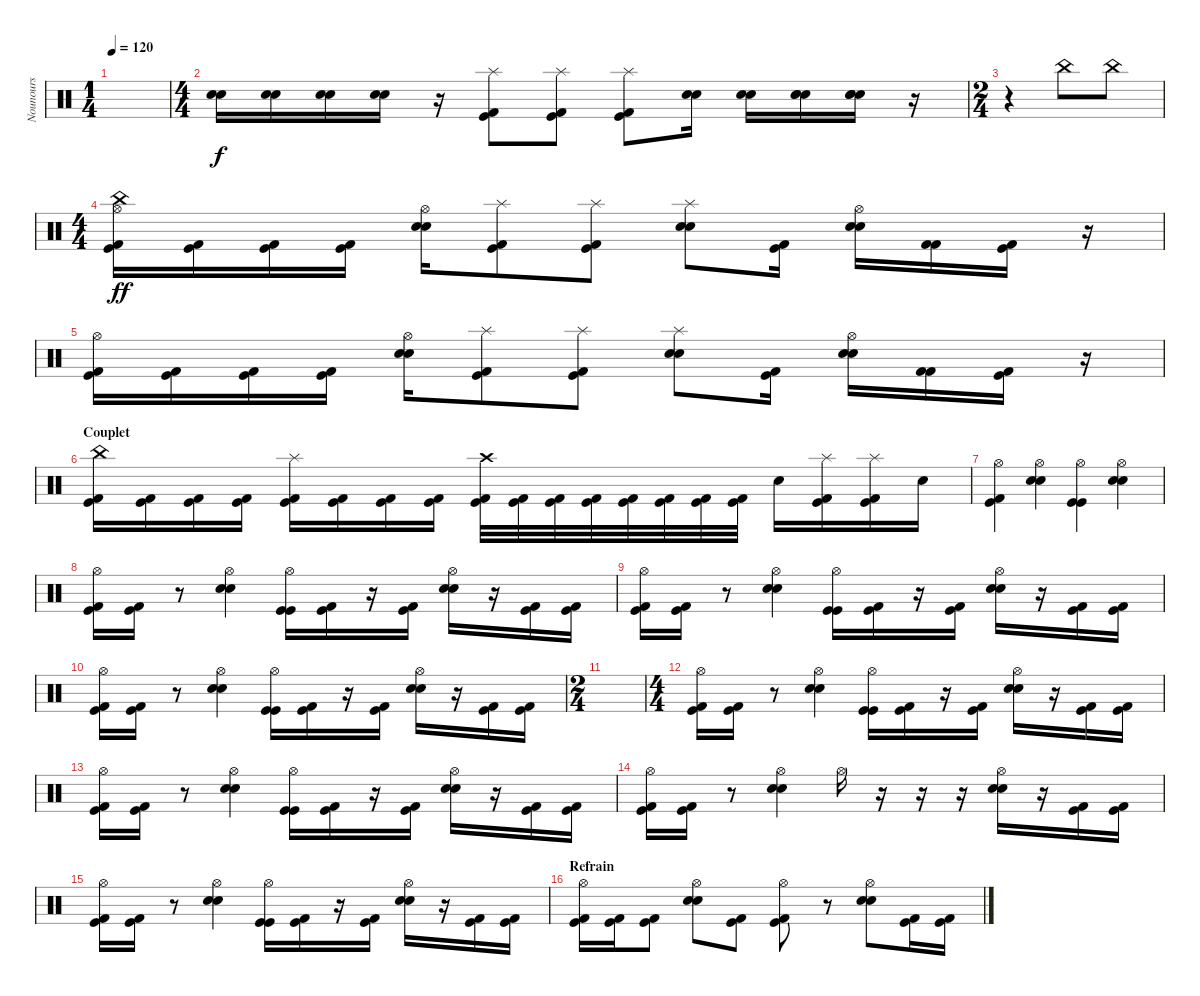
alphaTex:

\track ("Nounours" "Nounours") {instrument percussion}
\staff {score}
\articulation defaults
\ts (1 4)
\tempo 120
\clef neutral
\ks c
|
\ts (4 4)
("Electric Snare (hit)" "Electric Snare (hit)").16 ("Electric Snare (hit)" "Electric Snare (hit)").16 ("Electric Snare (hit)" "Electric Snare (hit)").16 ("Electric Snare (hit)" "Electric Snare (hit)").16 r.16 ("Splash (hit)" "Kick (hit) 2" "Kick (hit)").8 ("Splash (hit)" "Kick (hit) 2" "Kick (hit)").8 ("Splash (hit)" "Kick (hit) 2" "Kick (hit)").8 ("Electric Snare (hit)" "Electric Snare (hit)").16 ("Electric Snare (hit)" "Electric Snare (hit)").16 ("Electric Snare (hit)" "Electric Snare (hit)" "Electric Snare (hit)").16 ("Electric Snare (hit)" "Electric Snare (hit)" "Electric Snare (hit)").16 r.16 |
\ts (2 4)
r.4 "China (hit)".8{dy f} "China (hit)".8 |
\ts (4 4)
("Hi-Hat (open)" "China (hit)" "Kick (hit)" "Kick (hit) 2").16{dy ff} ("Kick (hit) 2" "Kick (hit)").16 ("Kick (hit)" "Kick (hit) 2").16 ("Kick (hit) 2" "Kick (hit)").16 ("Hi-Hat (open)" "Electric Snare (hit)" "Electric Snare (hit)").16 ("Splash (hit)" "Kick (hit) 2" "Kick (hit)").8 ("Splash (hit)" "Kick (hit) 2" "Kick (hit)").8 ("Splash (hit)" "Electric Snare (hit)" "Electric Snare (hit)").8 ("Kick (hit) 2" "Kick (hit)").16 ("Hi-Hat (open)" "Electric Snare (hit)" "Electric Snare (hit)").16 ("Kick (hit) 2" "Kick (hit) 2").16 ("Kick (hit)" "Kick (hit) 2").16 r.16 |
("Hi-Hat (open)" "Kick (hit)" "Kick (hit) 2").16 ("Kick (hit) 2" "Kick (hit)").16 ("Kick (hit)" "Kick (hit) 2").16 ("Kick (hit) 2" "Kick (hit)").16 ("Hi-Hat (open)" "Electric Snare (hit)" "Electric Snare (hit)").16 ("Splash (hit)" "Kick (hit) 2" "Kick (hit)").8 ("Splash (hit)" "Kick (hit) 2" "Kick (hit)").8 ("Splash (hit)" "Electric Snare (hit)" "Electric Snare (hit)").8 ("Kick (hit) 2" "Kick (hit)").16 ("Hi-Hat (open)" "Electric Snare (hit)" "Electric Snare (hit)").16 ("Kick (hit) 2" "Kick (hit) 2").16 ("Kick (hit)" "Kick (hit) 2").16 r.16 |
\section ("" "Couplet")
("China (hit)" "Kick (hit) 2" "Kick (hit)").16 ("Kick (hit) 2" "Kick (hit)").16 ("Kick (hit)" "Kick (hit) 2").16 ("Kick (hit)" "Kick (hit) 2").16 ("Splash (hit)" "Kick (hit) 2" "Kick (hit)").16 ("Kick (hit)" "Kick (hit) 2").16 ("Kick (hit) 2" "Kick (hit)").16 ("Kick (hit)" "Kick (hit) 2").16 ("Crash high (hit)" "Kick (hit) 2" "Kick (hit)").32 ("Kick (hit)" "Kick (hit) 2").32 ("Kick (hit) 2" "Kick (hit)").32 ("Kick (hit)" "Kick (hit) 2").32 ("Kick (hit) 2" "Kick (hit)").32 ("Kick (hit)" "Kick (hit) 2").32 ("Kick (hit)" "Kick (hit) 2").32 ("Kick (hit) 2" "Kick (hit)").32 "Electric Snare (hit)".16 ("Splash (hit)" "Kick (hit) 2" "Kick (hit)").16 ("Splash (hit)" "Kick (hit) 2" "Kick (hit)").16 "Electric Snare (hit)".16 |
("Hi-Hat (open)" "Kick (hit)" "Kick (hit) 2").4 ("Hi-Hat (open)" "Electric Snare (hit)" "Electric Snare (hit)").4 ("Hi-Hat (open)" "Kick (hit)" "Kick (hit)").4 ("Hi-Hat (open)" "Electric Snare (hit)" "Electric Snare (hit)").4 |
("Hi-Hat (open)" "Kick (hit)" "Kick (hit) 2").16 ("Kick (hit)" "Kick (hit) 2").16 r.8 ("Hi-Hat (open)" "Electric Snare (hit)" "Electric Snare (hit)").4 ("Hi-Hat (open)" "Kick (hit)" "Kick (hit)").16 ("Kick (hit)" "Kick (hit) 2").16 r.16 ("Kick (hit)" "Kick (hit) 2").16 ("Hi-Hat (open)" "Electric Snare (hit)" "Electric Snare (hit)").16 r.16 ("Kick (hit)" "Kick (hit) 2").16 ("Kick (hit) 2" "Kick (hit)").16 |
("Hi-Hat (open)" "Kick (hit)" "Kick (hit) 2").16 ("Kick (hit)" "Kick (hit) 2").16 r.8 ("Hi-Hat (open)" "Electric Snare (hit)" "Electric Snare (hit)").4 ("Hi-Hat (open)" "Kick (hit)" "Kick (hit)").16 ("Kick (hit)" "Kick (hit) 2").16 r.16 ("Kick (hit)" "Kick (hit) 2").16 ("Hi-Hat (open)" "Electric Snare (hit)" "Electric Snare (hit)").16 r.16 ("Kick (hit)" "Kick (hit) 2").16 ("Kick (hit) 2" "Kick (hit)").16 |
("Hi-Hat (open)" "Kick (hit)" "Kick (hit) 2").16 ("Kick (hit)" "Kick (hit) 2").16 r.8 ("Hi-Hat (open)" "Electric Snare (hit)" "Electric Snare (hit)").4 ("Hi-Hat (open)" "Kick (hit)" "Kick (hit)").16 ("Kick (hit)" "Kick (hit) 2").16 r.16 ("Kick (hit)" "Kick (hit) 2").16 ("Hi-Hat (open)" "Electric Snare (hit)" "Electric Snare (hit)").16 r.16 ("Kick (hit)" "Kick (hit) 2").16 ("Kick (hit) 2" "Kick (hit)").16 |
\ts (2 4)
|
\ts (4 4)
("Hi-Hat (open)" "Kick (hit)" "Kick (hit) 2").16 ("Kick (hit)" "Kick (hit) 2").16 r.8 ("Hi-Hat (open)" "Electric Snare (hit)" "Electric Snare (hit)").4 ("Hi-Hat (open)" "Kick (hit)" "Kick (hit)").16 ("Kick (hit)" "Kick (hit) 2").16 r.16 ("Kick (hit)" "Kick (hit) 2").16 ("Hi-Hat (open)" "Electric Snare (hit)" "Electric Snare (hit)").16 r.16 ("Kick (hit)" "Kick (hit) 2").16 ("Kick (hit) 2" "Kick (hit)").16 |
("Hi-Hat (open)" "Kick (hit)" "Kick (hit) 2").16 ("Kick (hit)" "Kick (hit) 2").16 r.8 ("Hi-Hat (open)" "Electric Snare (hit)" "Electric Snare (hit)").4 ("Hi-Hat (open)" "Kick (hit)" "Kick (hit)").16 ("Kick (hit)" "Kick (hit) 2").16 r.16 ("Kick (hit)" "Kick (hit) 2").16 ("Hi-Hat (open)" "Electric Snare (hit)" "Electric Snare (hit)").16 r.16 ("Kick (hit)" "Kick (hit) 2").16 ("Kick (hit) 2" "Kick (hit)").16 |
("Hi-Hat (open)" "Kick (hit)" "Kick (hit) 2").16 ("Kick (hit)" "Kick (hit) 2").16 r.8 ("Hi-Hat (open)" "Electric Snare (hit)" "Electric Snare (hit)").4 "Hi-Hat (open)".16 r.16 r.16 r.16 ("Hi-Hat (open)" "Electric Snare (hit)" "Electric Snare (hit)").16 r.16 ("Kick (hit)" "Kick (hit) 2").16 ("Kick (hit) 2" "Kick (hit)").16 |
("Hi-Hat (open)" "Kick (hit)" "Kick (hit) 2").16 ("Kick (hit)" "Kick (hit) 2").16 r.8 ("Hi-Hat (open)" "Electric Snare (hit)" "Electric Snare (hit)").4 ("Hi-Hat (open)" "Kick (hit)" "Kick (hit)").16 ("Kick (hit)" "Kick (hit) 2").16 r.16 ("Kick (hit)" "Kick (hit) 2").16 ("Hi-Hat (open)" "Electric Snare (hit)" "Electric Snare (hit)").16 r.16 ("Kick (hit)" "Kick (hit) 2").16 ("Kick (hit) 2" "Kick (hit)").16 |
\section ("" "Refrain")
("Hi-Hat (open)" "Kick (hit)" "Kick (hit) 2").16 ("Kick (hit) 2" "Kick (hit)").16 ("Kick (hit)" "Kick (hit) 2").8 ("Hi-Hat (open)" "Electric Snare (hit)" "Electric Snare (hit)").8 ("Kick (hit) 2" "Kick (hit)").8 ("Hi-Hat (open)" "Kick (hit)" "Kick (hit) 2").8 r.8 ("Hi-Hat (open)" "Electric Snare (hit)" "Electric Snare (hit)").8 ("Kick (hit) 2" "Kick (hit)").16 ("Kick (hit) 2" "Kick (hit)").16
